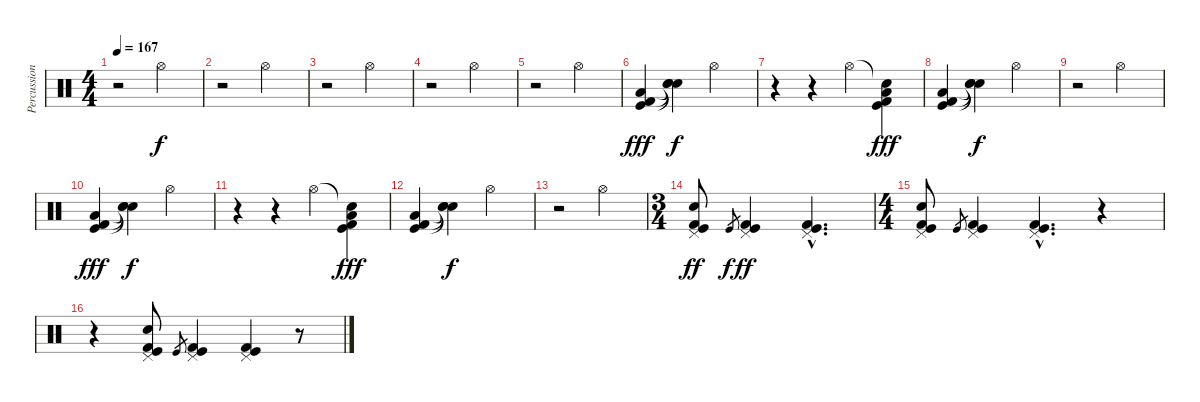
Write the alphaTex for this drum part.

\track ("Percussions" "Percussion") {instrument percussion}
\staff {score}
\articulation defaults
\ts (4 4)
\tempo 167
\clef neutral
\ks c
r.2{dy f} "Hi-Hat (open)".2 |
r.2{volume 9} "Hi-Hat (open)".2 |
r.2 "Hi-Hat (open)".2 |
r.2{volume 9} "Hi-Hat (open)".2 |
r.2 "Hi-Hat (open)".2 |
("Low Floor Tom (hit)" "Kick (hit) 2" "Kick (hit)").4{dy fff} ("Snare (hit)"{t} "Snare (hit)"{t} "Snare (hit)"{t}).4{dy f volume 9} "Hi-Hat (open)".2 |
r.4 r.4 "Hi-Hat (open)".4 ("Snare (hit)"{t} "Low Floor Tom (hit)" "Kick (hit) 2" "Kick (hit)").4{dy fff} |
("Low Floor Tom (hit)" "Kick (hit) 2" "Kick (hit)").4 ("Snare (hit)"{t} "Snare (hit)"{t} "Snare (hit)"{t}).4{dy f volume 9} "Hi-Hat (open)".2 |
r.2 "Hi-Hat (open)".2 |
("Low Floor Tom (hit)" "Kick (hit) 2" "Kick (hit)").4{dy fff} ("Snare (hit)"{t} "Snare (hit)"{t} "Snare (hit)"{t}).4{dy f volume 9} "Hi-Hat (open)".2 |
r.4 r.4 "Hi-Hat (open)".4 ("Snare (hit)"{t} "Low Floor Tom (hit)" "Kick (hit) 2" "Kick (hit)").4{dy fff} |
("Low Floor Tom (hit)" "Kick (hit) 2" "Kick (hit)").4 ("Snare (hit)"{t} "Snare (hit)"{t} "Snare (hit)"{t}).4{dy f volume 9} "Hi-Hat (open)".2 |
r.2 "Hi-Hat (open)".2 |
\ts (3 4)
("Pedal Hi-Hat (hit)" "Electric Snare (hit)" "Kick (hit) 2" "Kick (hit)").8{dy ff} "Kick (hit)".8{gr dy f} ("Pedal Hi-Hat (hit)" "Kick (hit) 2" "Kick (hit)").4{dy ff} ("Pedal Hi-Hat (hit)"{hac} "Kick (hit) 2"{hac} "Kick (hit)"{hac}).4{d} |
\ts (4 4)
("Pedal Hi-Hat (hit)" "Electric Snare (hit)" "Kick (hit) 2" "Kick (hit)").8 "Kick (hit)".8{gr} ("Pedal Hi-Hat (hit)" "Kick (hit) 2" "Kick (hit)").4 ("Pedal Hi-Hat (hit)"{hac} "Kick (hit) 2"{hac} "Kick (hit)"{hac}).4{d} r.4 |
r.4 ("Pedal Hi-Hat (hit)" "Electric Snare (hit)" "Kick (hit) 2" "Kick (hit)").8 "Kick (hit)".8{gr} ("Pedal Hi-Hat (hit)" "Kick (hit) 2" "Kick (hit)").4 ("Pedal Hi-Hat (hit)" "Kick (hit) 2" "Kick (hit)").4 r.8
